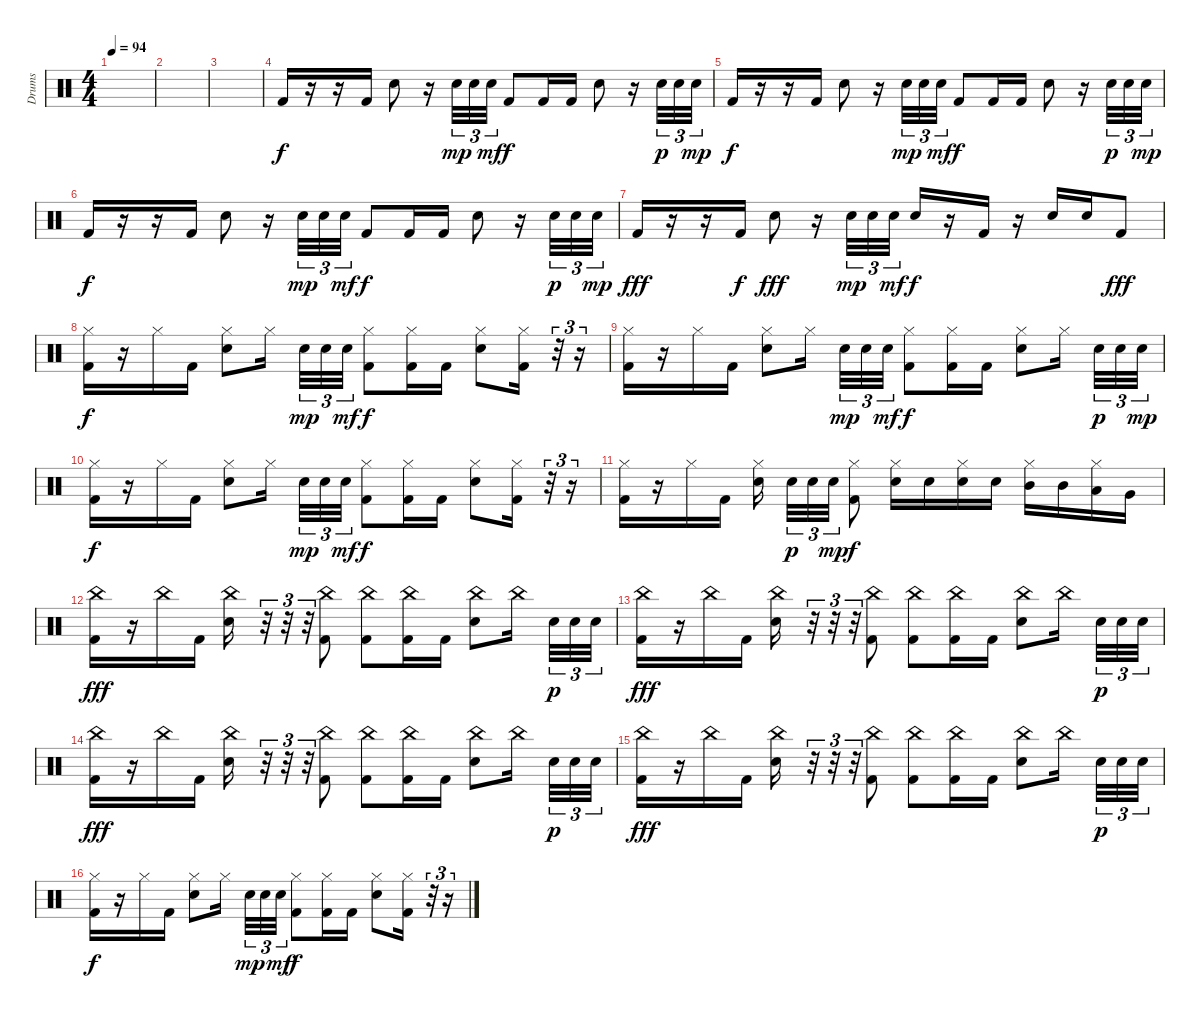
\track ("Drums" "Drums") {instrument percussion}
\staff {score}
\articulation defaults
\ts (4 4)
\tempo 94
\clef neutral
\ks c
|
|
|
"Kick (hit) 2".16{dy f} r.16 r.16 "Kick (hit) 2".16 "Electric Snare (hit)".8 r.16 "Electric Snare (hit)".32{tu (3 2) dy mp} "Electric Snare (hit)".32{tu (3 2)} "Electric Snare (hit)".32{tu (3 2) dy mf} "Kick (hit) 2".8{dy f} "Kick (hit) 2".16 "Kick (hit) 2".16 "Electric Snare (hit)".8 r.16 "Electric Snare (hit)".32{tu (3 2) dy p} "Electric Snare (hit)".32{tu (3 2)} "Electric Snare (hit)".32{tu (3 2) dy mp} |
"Kick (hit) 2".16{dy f} r.16 r.16 "Kick (hit) 2".16 "Electric Snare (hit)".8 r.16 "Electric Snare (hit)".32{tu (3 2) dy mp} "Electric Snare (hit)".32{tu (3 2)} "Electric Snare (hit)".32{tu (3 2) dy mf} "Kick (hit) 2".8{dy f} "Kick (hit) 2".16 "Kick (hit) 2".16 "Electric Snare (hit)".8 r.16 "Electric Snare (hit)".32{tu (3 2) dy p} "Electric Snare (hit)".32{tu (3 2)} "Electric Snare (hit)".32{tu (3 2) dy mp} |
"Kick (hit) 2".16{dy f} r.16 r.16 "Kick (hit) 2".16 "Electric Snare (hit)".8 r.16 "Electric Snare (hit)".32{tu (3 2) dy mp} "Electric Snare (hit)".32{tu (3 2)} "Electric Snare (hit)".32{tu (3 2) dy mf} "Kick (hit) 2".8{dy f} "Kick (hit) 2".16 "Kick (hit) 2".16 "Electric Snare (hit)".8 r.16 "Electric Snare (hit)".32{tu (3 2) dy p} "Electric Snare (hit)".32{tu (3 2)} "Electric Snare (hit)".32{tu (3 2) dy mp} |
"Kick (hit) 2".16{dy fff} r.16 r.16 "Kick (hit) 2".16{dy f} "Electric Snare (hit)".8{dy fff} r.16 "Electric Snare (hit)".32{tu (3 2) dy mp} "Electric Snare (hit)".32{tu (3 2)} "Electric Snare (hit)".32{tu (3 2) dy mf} "Electric Snare (hit)".16{dy f} r.16 "Kick (hit) 2".16 r.16 "Electric Snare (hit)".16 "Electric Snare (hit)".16 "Kick (hit) 2".8{dy fff} |
("Hi-Hat (closed)" "Kick (hit) 2").16{dy f} r.16 "Hi-Hat (closed)".16 "Kick (hit) 2".16 ("Hi-Hat (closed)" "Electric Snare (hit)").8 "Hi-Hat (closed)".16 "Electric Snare (hit)".32{tu (3 2) dy mp} "Electric Snare (hit)".32{tu (3 2)} "Electric Snare (hit)".32{tu (3 2) dy mf} ("Hi-Hat (closed)" "Kick (hit) 2").8{dy f} ("Hi-Hat (closed)" "Kick (hit) 2").16 "Kick (hit) 2".16 ("Hi-Hat (closed)" "Electric Snare (hit)").8 ("Hi-Hat (closed)" "Kick (hit) 2").16 r.32{tu (3 2)} r.16{tu (3 2)} |
("Hi-Hat (closed)" "Kick (hit) 2").16 r.16 "Hi-Hat (closed)".16 "Kick (hit) 2".16 ("Hi-Hat (closed)" "Electric Snare (hit)").8 "Hi-Hat (closed)".16 "Electric Snare (hit)".32{tu (3 2) dy mp} "Electric Snare (hit)".32{tu (3 2)} "Electric Snare (hit)".32{tu (3 2) dy mf} ("Hi-Hat (closed)" "Kick (hit) 2").8{dy f} ("Hi-Hat (closed)" "Kick (hit) 2").16 "Kick (hit) 2".16 ("Hi-Hat (closed)" "Electric Snare (hit)").8 "Hi-Hat (closed)".16 "Electric Snare (hit)".32{tu (3 2) dy p} "Electric Snare (hit)".32{tu (3 2)} "Electric Snare (hit)".32{tu (3 2) dy mp} |
("Hi-Hat (closed)" "Kick (hit) 2").16{dy f} r.16 "Hi-Hat (closed)".16 "Kick (hit) 2".16 ("Hi-Hat (closed)" "Electric Snare (hit)").8 "Hi-Hat (closed)".16 "Electric Snare (hit)".32{tu (3 2) dy mp} "Electric Snare (hit)".32{tu (3 2)} "Electric Snare (hit)".32{tu (3 2) dy mf} ("Hi-Hat (closed)" "Kick (hit) 2").8{dy f} ("Hi-Hat (closed)" "Kick (hit) 2").16 "Kick (hit) 2".16 ("Hi-Hat (closed)" "Electric Snare (hit)").8 ("Hi-Hat (closed)" "Kick (hit) 2").16 r.32{tu (3 2)} r.16{tu (3 2)} |
("Hi-Hat (closed)" "Kick (hit) 2").16 r.16 "Hi-Hat (closed)".16 "Kick (hit) 2".16 ("Hi-Hat (closed)" "Electric Snare (hit)").16 "Electric Snare (hit)".32{tu (3 2) dy p} "Electric Snare (hit)".32{tu (3 2)} "Electric Snare (hit)".32{tu (3 2) dy mp} ("Hi-Hat (closed)" "Kick (hit) 2").8{dy f} ("Hi-Hat (closed)" "Electric Snare (hit)").16 "Electric Snare (hit)".16 ("Hi-Hat (closed)" "Electric Snare (hit)").16 "Electric Snare (hit)".16 ("Hi-Hat (closed)" "Mid Tom (hit)").16 "Mid Tom (hit)".16 ("Hi-Hat (closed)" "Low Tom (hit)").16 "Very Low Tom (hit)".16 |
("China (hit)" "Kick (hit) 2").16{dy fff} r.16 "China (hit)".16 "Kick (hit) 2".16 ("China (hit)" "Electric Snare (hit)").16 r.32{tu (3 2)} r.32{tu (3 2)} r.32{tu (3 2)} ("China (hit)" "Kick (hit) 2").8 ("China (hit)" "Kick (hit) 2").8 ("China (hit)" "Kick (hit) 2").16 "Kick (hit) 2".16 ("China (hit)" "Electric Snare (hit)").8 "China (hit)".16 "Electric Snare (hit)".32{tu (3 2) dy p} "Electric Snare (hit)".32{tu (3 2)} "Electric Snare (hit)".32{tu (3 2)} |
("China (hit)" "Kick (hit) 2").16{dy fff} r.16 "China (hit)".16 "Kick (hit) 2".16 ("China (hit)" "Electric Snare (hit)").16 r.32{tu (3 2)} r.32{tu (3 2)} r.32{tu (3 2)} ("China (hit)" "Kick (hit) 2").8 ("China (hit)" "Kick (hit) 2").8 ("China (hit)" "Kick (hit) 2").16 "Kick (hit) 2".16 ("China (hit)" "Electric Snare (hit)").8 "China (hit)".16 "Electric Snare (hit)".32{tu (3 2) dy p} "Electric Snare (hit)".32{tu (3 2)} "Electric Snare (hit)".32{tu (3 2)} |
("China (hit)" "Kick (hit) 2").16{dy fff} r.16 "China (hit)".16 "Kick (hit) 2".16 ("China (hit)" "Electric Snare (hit)").16 r.32{tu (3 2)} r.32{tu (3 2)} r.32{tu (3 2)} ("China (hit)" "Kick (hit) 2").8 ("China (hit)" "Kick (hit) 2").8 ("China (hit)" "Kick (hit) 2").16 "Kick (hit) 2".16 ("China (hit)" "Electric Snare (hit)").8 "China (hit)".16 "Electric Snare (hit)".32{tu (3 2) dy p} "Electric Snare (hit)".32{tu (3 2)} "Electric Snare (hit)".32{tu (3 2)} |
("China (hit)" "Kick (hit) 2").16{dy fff} r.16 "China (hit)".16 "Kick (hit) 2".16 ("China (hit)" "Electric Snare (hit)").16 r.32{tu (3 2)} r.32{tu (3 2)} r.32{tu (3 2)} ("China (hit)" "Kick (hit) 2").8 ("China (hit)" "Kick (hit) 2").8 ("China (hit)" "Kick (hit) 2").16 "Kick (hit) 2".16 ("China (hit)" "Electric Snare (hit)").8 "China (hit)".16 "Electric Snare (hit)".32{tu (3 2) dy p} "Electric Snare (hit)".32{tu (3 2)} "Electric Snare (hit)".32{tu (3 2)} |
("Hi-Hat (closed)" "Kick (hit) 2").16{dy f} r.16 "Hi-Hat (closed)".16 "Kick (hit) 2".16 ("Hi-Hat (closed)" "Electric Snare (hit)").8 "Hi-Hat (closed)".16 "Electric Snare (hit)".32{tu (3 2) dy mp} "Electric Snare (hit)".32{tu (3 2)} "Electric Snare (hit)".32{tu (3 2) dy mf} ("Hi-Hat (closed)" "Kick (hit) 2").8{dy f} ("Hi-Hat (closed)" "Kick (hit) 2").16 "Kick (hit) 2".16 ("Hi-Hat (closed)" "Electric Snare (hit)").8 ("Hi-Hat (closed)" "Kick (hit) 2").16 r.32{tu (3 2)} r.16{tu (3 2)}
